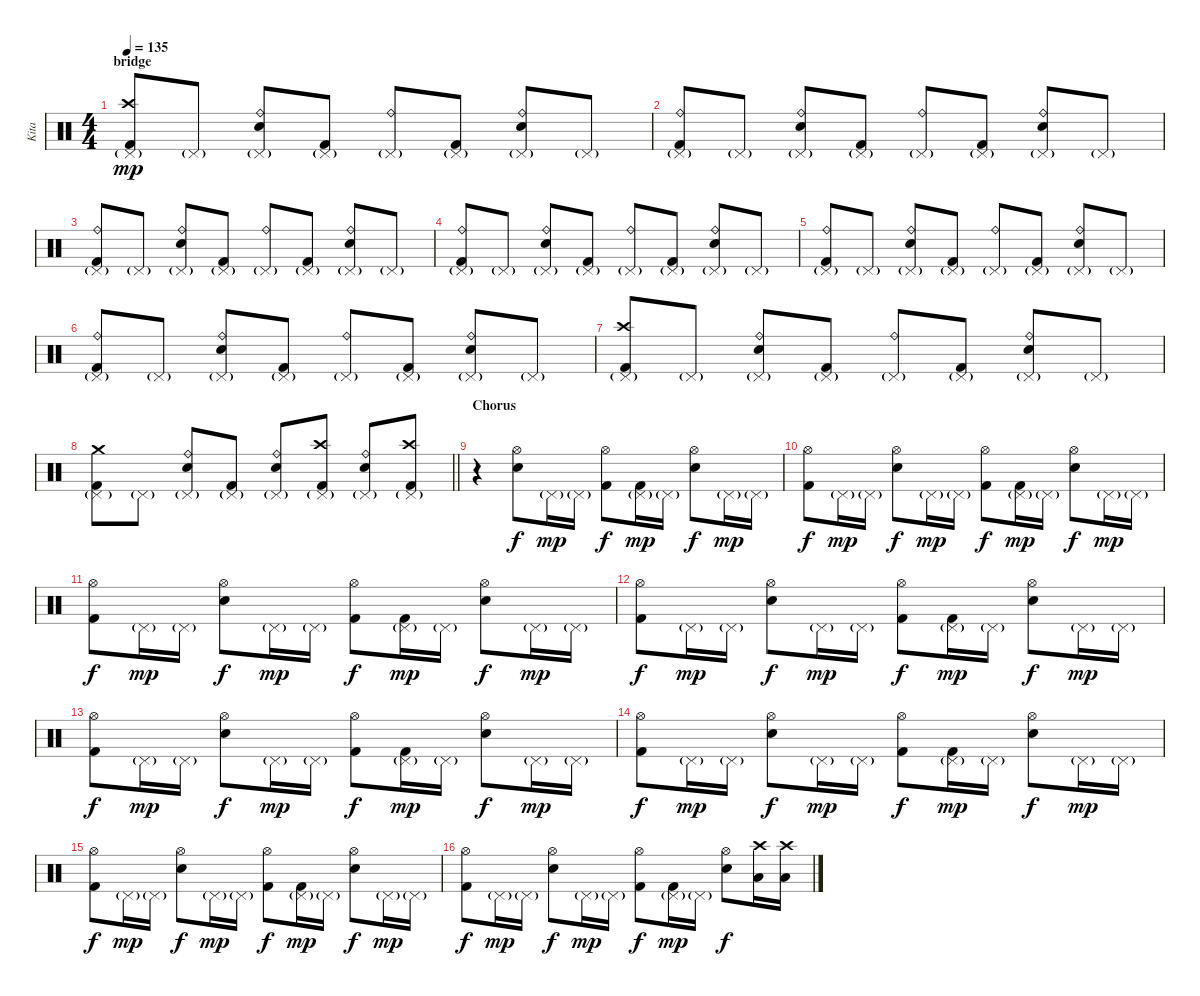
\track ("Kita" "Kita") {instrument percussion}
\staff {score}
\articulation defaults
\ts (4 4)
\section ("" "bridge")
\tempo 135
\clef neutral
\ks c
("Pedal Hi-Hat (hit)"{g} "Crash high (hit)" "Kick (hit) 2").8{dy mp} "Pedal Hi-Hat (hit)"{g}.8 ("Pedal Hi-Hat (hit)"{g} "Ride (bell)" "Snare (hit) 2").8 ("Pedal Hi-Hat (hit)"{g} "Kick (hit) 2").8 ("Pedal Hi-Hat (hit)"{g} "Ride (bell)").8 ("Pedal Hi-Hat (hit)"{g} "Kick (hit) 2").8 ("Pedal Hi-Hat (hit)"{g} "Ride (bell)" "Snare (hit) 2").8 "Pedal Hi-Hat (hit)"{g}.8 |
("Pedal Hi-Hat (hit)"{g} "Ride (bell)" "Kick (hit) 2").8 "Pedal Hi-Hat (hit)"{g}.8 ("Pedal Hi-Hat (hit)"{g} "Ride (bell)" "Snare (hit) 2").8 ("Pedal Hi-Hat (hit)"{g} "Kick (hit) 2").8 ("Pedal Hi-Hat (hit)"{g} "Ride (bell)").8 ("Pedal Hi-Hat (hit)"{g} "Kick (hit) 2").8 ("Pedal Hi-Hat (hit)"{g} "Ride (bell)" "Snare (hit) 2").8 "Pedal Hi-Hat (hit)"{g}.8 |
("Pedal Hi-Hat (hit)"{g} "Ride (bell)" "Kick (hit) 2").8 "Pedal Hi-Hat (hit)"{g}.8 ("Pedal Hi-Hat (hit)"{g} "Ride (bell)" "Snare (hit) 2").8 ("Pedal Hi-Hat (hit)"{g} "Kick (hit) 2").8 ("Pedal Hi-Hat (hit)"{g} "Ride (bell)").8 ("Pedal Hi-Hat (hit)"{g} "Kick (hit) 2").8 ("Pedal Hi-Hat (hit)"{g} "Ride (bell)" "Snare (hit) 2").8 "Pedal Hi-Hat (hit)"{g}.8 |
("Pedal Hi-Hat (hit)"{g} "Ride (bell)" "Kick (hit) 2").8 "Pedal Hi-Hat (hit)"{g}.8 ("Pedal Hi-Hat (hit)"{g} "Ride (bell)" "Snare (hit) 2").8 ("Pedal Hi-Hat (hit)"{g} "Kick (hit) 2").8 ("Pedal Hi-Hat (hit)"{g} "Ride (bell)").8 ("Pedal Hi-Hat (hit)"{g} "Kick (hit) 2").8 ("Pedal Hi-Hat (hit)"{g} "Ride (bell)" "Snare (hit) 2").8 "Pedal Hi-Hat (hit)"{g}.8 |
("Pedal Hi-Hat (hit)"{g} "Ride (bell)" "Kick (hit) 2").8 "Pedal Hi-Hat (hit)"{g}.8 ("Pedal Hi-Hat (hit)"{g} "Ride (bell)" "Snare (hit) 2").8 ("Pedal Hi-Hat (hit)"{g} "Kick (hit) 2").8 ("Pedal Hi-Hat (hit)"{g} "Ride (bell)").8 ("Pedal Hi-Hat (hit)"{g} "Kick (hit) 2").8 ("Pedal Hi-Hat (hit)"{g} "Ride (bell)" "Snare (hit) 2").8 "Pedal Hi-Hat (hit)"{g}.8 |
("Pedal Hi-Hat (hit)"{g} "Ride (bell)" "Kick (hit) 2").8 "Pedal Hi-Hat (hit)"{g}.8 ("Pedal Hi-Hat (hit)"{g} "Ride (bell)" "Snare (hit) 2").8 ("Pedal Hi-Hat (hit)"{g} "Kick (hit) 2").8 ("Pedal Hi-Hat (hit)"{g} "Ride (bell)").8 ("Pedal Hi-Hat (hit)"{g} "Kick (hit) 2").8 ("Pedal Hi-Hat (hit)"{g} "Ride (bell)" "Snare (hit) 2").8 "Pedal Hi-Hat (hit)"{g}.8 |
("Pedal Hi-Hat (hit)"{g} "Crash high (hit)" "Kick (hit) 2").8 "Pedal Hi-Hat (hit)"{g}.8 ("Pedal Hi-Hat (hit)"{g} "Ride (bell)" "Snare (hit) 2").8 ("Pedal Hi-Hat (hit)"{g} "Kick (hit) 2").8 ("Pedal Hi-Hat (hit)"{g} "Ride (bell)").8 ("Pedal Hi-Hat (hit)"{g} "Kick (hit) 2").8 ("Pedal Hi-Hat (hit)"{g} "Ride (bell)" "Snare (hit) 2").8 "Pedal Hi-Hat (hit)"{g}.8 |
\barLineRight lightlight
("Pedal Hi-Hat (hit)"{g} "Crash medium (hit)" "Kick (hit) 2").8 "Pedal Hi-Hat (hit)"{g}.8 ("Pedal Hi-Hat (hit)"{g} "Ride (bell)" "Snare (hit) 2").8 ("Pedal Hi-Hat (hit)"{g} "Kick (hit) 2").8 ("Pedal Hi-Hat (hit)"{g} "Ride (bell)" "Snare (hit) 2").8 ("Pedal Hi-Hat (hit)"{g} "Crash high (hit)" "Kick (hit) 2").8 ("Pedal Hi-Hat (hit)"{g} "Ride (bell)" "Snare (hit) 2").8 ("Pedal Hi-Hat (hit)"{g} "Crash high (hit)" "Kick (hit) 2").8 |
\section ("" "Chorus")
r.4 ("Hi-Hat (open)" "Snare (hit) 2").8{dy f} "Pedal Hi-Hat (hit)"{g}.16{dy mp} "Pedal Hi-Hat (hit)"{g}.16 ("Hi-Hat (open)" "Kick (hit) 2").8{dy f} ("Pedal Hi-Hat (hit)"{g} "Kick (hit) 2").16{dy mp} "Pedal Hi-Hat (hit)"{g}.16 ("Hi-Hat (open)" "Snare (hit) 2").8{dy f} "Pedal Hi-Hat (hit)"{g}.16{dy mp} "Pedal Hi-Hat (hit)"{g}.16 |
("Hi-Hat (open)" "Kick (hit) 2").8{dy f} "Pedal Hi-Hat (hit)"{g}.16{dy mp} "Pedal Hi-Hat (hit)"{g}.16 ("Hi-Hat (open)" "Snare (hit) 2").8{dy f} "Pedal Hi-Hat (hit)"{g}.16{dy mp} "Pedal Hi-Hat (hit)"{g}.16 ("Hi-Hat (open)" "Kick (hit) 2").8{dy f} ("Pedal Hi-Hat (hit)"{g} "Kick (hit) 2").16{dy mp} "Pedal Hi-Hat (hit)"{g}.16 ("Hi-Hat (open)" "Snare (hit) 2").8{dy f} "Pedal Hi-Hat (hit)"{g}.16{dy mp} "Pedal Hi-Hat (hit)"{g}.16 |
("Hi-Hat (open)" "Kick (hit) 2").8{dy f} "Pedal Hi-Hat (hit)"{g}.16{dy mp} "Pedal Hi-Hat (hit)"{g}.16 ("Hi-Hat (open)" "Snare (hit) 2").8{dy f} "Pedal Hi-Hat (hit)"{g}.16{dy mp} "Pedal Hi-Hat (hit)"{g}.16 ("Hi-Hat (open)" "Kick (hit) 2").8{dy f} ("Pedal Hi-Hat (hit)"{g} "Kick (hit) 2").16{dy mp} "Pedal Hi-Hat (hit)"{g}.16 ("Hi-Hat (open)" "Snare (hit) 2").8{dy f} "Pedal Hi-Hat (hit)"{g}.16{dy mp} "Pedal Hi-Hat (hit)"{g}.16 |
("Hi-Hat (open)" "Kick (hit) 2").8{dy f} "Pedal Hi-Hat (hit)"{g}.16{dy mp} "Pedal Hi-Hat (hit)"{g}.16 ("Hi-Hat (open)" "Snare (hit) 2").8{dy f} "Pedal Hi-Hat (hit)"{g}.16{dy mp} "Pedal Hi-Hat (hit)"{g}.16 ("Hi-Hat (open)" "Kick (hit) 2").8{dy f} ("Pedal Hi-Hat (hit)"{g} "Kick (hit) 2").16{dy mp} "Pedal Hi-Hat (hit)"{g}.16 ("Hi-Hat (open)" "Snare (hit) 2").8{dy f} "Pedal Hi-Hat (hit)"{g}.16{dy mp} "Pedal Hi-Hat (hit)"{g}.16 |
("Hi-Hat (open)" "Kick (hit) 2").8{dy f} "Pedal Hi-Hat (hit)"{g}.16{dy mp} "Pedal Hi-Hat (hit)"{g}.16 ("Hi-Hat (open)" "Snare (hit) 2").8{dy f} "Pedal Hi-Hat (hit)"{g}.16{dy mp} "Pedal Hi-Hat (hit)"{g}.16 ("Hi-Hat (open)" "Kick (hit) 2").8{dy f} ("Pedal Hi-Hat (hit)"{g} "Kick (hit) 2").16{dy mp} "Pedal Hi-Hat (hit)"{g}.16 ("Hi-Hat (open)" "Snare (hit) 2").8{dy f} "Pedal Hi-Hat (hit)"{g}.16{dy mp} "Pedal Hi-Hat (hit)"{g}.16 |
("Hi-Hat (open)" "Kick (hit) 2").8{dy f} "Pedal Hi-Hat (hit)"{g}.16{dy mp} "Pedal Hi-Hat (hit)"{g}.16 ("Hi-Hat (open)" "Snare (hit) 2").8{dy f} "Pedal Hi-Hat (hit)"{g}.16{dy mp} "Pedal Hi-Hat (hit)"{g}.16 ("Hi-Hat (open)" "Kick (hit) 2").8{dy f} ("Pedal Hi-Hat (hit)"{g} "Kick (hit) 2").16{dy mp} "Pedal Hi-Hat (hit)"{g}.16 ("Hi-Hat (open)" "Snare (hit) 2").8{dy f} "Pedal Hi-Hat (hit)"{g}.16{dy mp} "Pedal Hi-Hat (hit)"{g}.16 |
("Hi-Hat (open)" "Kick (hit) 2").8{dy f} "Pedal Hi-Hat (hit)"{g}.16{dy mp} "Pedal Hi-Hat (hit)"{g}.16 ("Hi-Hat (open)" "Snare (hit) 2").8{dy f} "Pedal Hi-Hat (hit)"{g}.16{dy mp} "Pedal Hi-Hat (hit)"{g}.16 ("Hi-Hat (open)" "Kick (hit) 2").8{dy f} ("Pedal Hi-Hat (hit)"{g} "Kick (hit) 2").16{dy mp} "Pedal Hi-Hat (hit)"{g}.16 ("Hi-Hat (open)" "Snare (hit) 2").8{dy f} "Pedal Hi-Hat (hit)"{g}.16{dy mp} "Pedal Hi-Hat (hit)"{g}.16 |
("Hi-Hat (open)" "Kick (hit) 2").8{dy f} "Pedal Hi-Hat (hit)"{g}.16{dy mp} "Pedal Hi-Hat (hit)"{g}.16 ("Hi-Hat (open)" "Snare (hit) 2").8{dy f} "Pedal Hi-Hat (hit)"{g}.16{dy mp} "Pedal Hi-Hat (hit)"{g}.16 ("Hi-Hat (open)" "Kick (hit) 2").8{dy f} ("Pedal Hi-Hat (hit)"{g} "Kick (hit) 2").16{dy mp} "Pedal Hi-Hat (hit)"{g}.16 ("Hi-Hat (open)" "Snare (hit) 2").8{dy f} ("Crash high (hit)" "Low Tom (hit)").16 ("Crash high (hit)" "Low Tom (hit)").16
